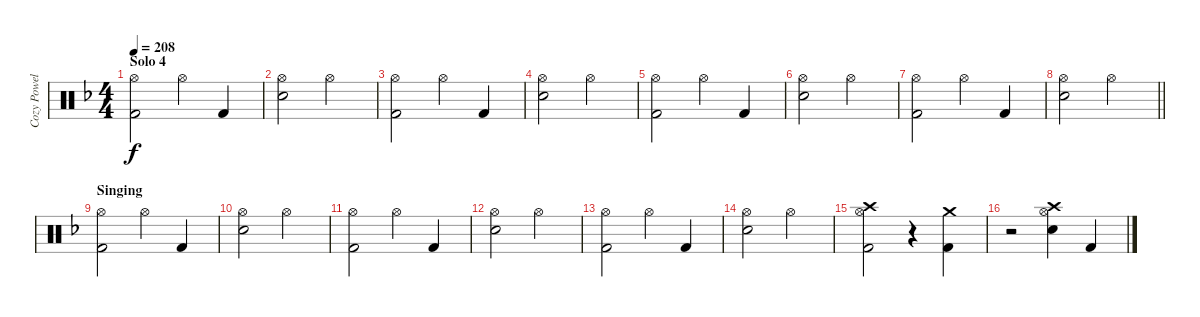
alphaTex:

\track ("Cozy Powell" "Cozy Powel") {instrument percussion}
\staff {score}
\articulation defaults
\ts (4 4)
\section ("" "Solo 4")
\tempo 208
\clef neutral
\ks f
("Hi-Hat (open)" "Kick (hit) 2").2{dy f} "Hi-Hat (open)".4 "Kick (hit) 2".4 |
("Hi-Hat (open)" "Snare (hit) 2").2 "Hi-Hat (open)".2 |
("Hi-Hat (open)" "Kick (hit) 2").2 "Hi-Hat (open)".4 "Kick (hit) 2".4 |
("Hi-Hat (open)" "Snare (hit) 2").2 "Hi-Hat (open)".2 |
("Hi-Hat (open)" "Kick (hit) 2").2 "Hi-Hat (open)".4 "Kick (hit) 2".4 |
("Hi-Hat (open)" "Snare (hit) 2").2 "Hi-Hat (open)".2 |
("Hi-Hat (open)" "Kick (hit) 2").2 "Hi-Hat (open)".4 "Kick (hit) 2".4 |
\barLineRight lightlight
("Hi-Hat (open)" "Snare (hit) 2").2 "Hi-Hat (open)".2 |
\section ("" "Singing")
("Hi-Hat (open)" "Kick (hit) 2").2 "Hi-Hat (open)".4 "Kick (hit) 2".4 |
("Hi-Hat (open)" "Snare (hit) 2").2 "Hi-Hat (open)".2 |
("Hi-Hat (open)" "Kick (hit) 2").2 "Hi-Hat (open)".4 "Kick (hit) 2".4 |
("Hi-Hat (open)" "Snare (hit) 2").2 "Hi-Hat (open)".2 |
("Hi-Hat (open)" "Kick (hit) 2").2 "Hi-Hat (open)".4 "Kick (hit) 2".4 |
("Hi-Hat (open)" "Snare (hit) 2").2 "Hi-Hat (open)".2 |
("Hi-Hat (open)" "Kick (hit) 2" "Crash high (hit)").2 r.4 ("Kick (hit) 2" "Crash medium (hit)").4 |
r.2 ("Hi-Hat (open)" "Crash high (hit)" "Snare (hit) 2").4 "Kick (hit) 2".4
